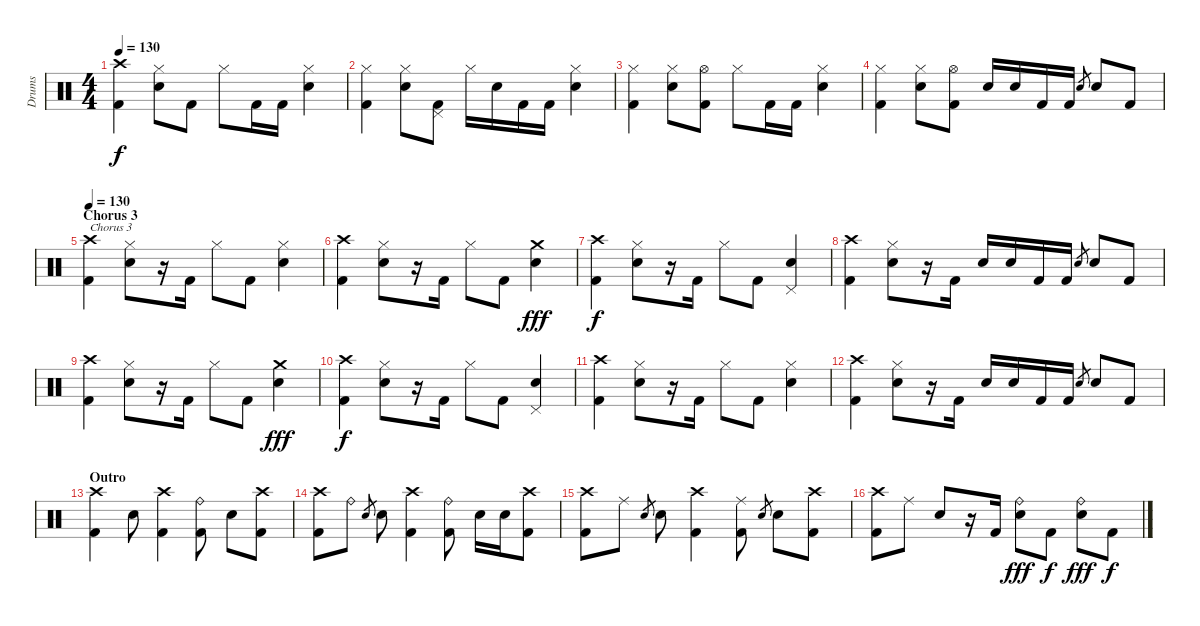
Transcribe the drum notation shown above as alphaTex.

\track ("Drums" "Drums") {instrument percussion}
\staff {score}
\articulation defaults
\ts (4 4)
\tempo 130
\clef neutral
\ks c
("Crash high (hit)" "Kick (hit) 2").4{dy f} ("Hi-Hat (closed)" "Electric Snare (hit)").8 "Kick (hit) 2".8 "Hi-Hat (closed)".8 "Kick (hit) 2".16 "Kick (hit) 2".16 ("Hi-Hat (closed)" "Electric Snare (hit)").4 |
("Hi-Hat (closed)" "Kick (hit) 2").4 ("Hi-Hat (closed)" "Electric Snare (hit)").8 ("Pedal Hi-Hat (hit)" "Kick (hit) 2").8 "Hi-Hat (closed)".16 "Electric Snare (hit)".16 "Kick (hit) 2".16 "Kick (hit) 2".16 ("Hi-Hat (closed)" "Electric Snare (hit)").4 |
("Hi-Hat (closed)" "Kick (hit) 2").4 ("Hi-Hat (closed)" "Electric Snare (hit)").8 ("Hi-Hat (open)" "Kick (hit) 2").8 "Hi-Hat (closed)".8 "Kick (hit) 2".16 "Kick (hit) 2".16 ("Hi-Hat (closed)" "Electric Snare (hit)").4 |
("Hi-Hat (closed)" "Kick (hit) 2").4 ("Hi-Hat (closed)" "Electric Snare (hit)").8 ("Hi-Hat (open)" "Kick (hit) 2").8 "Electric Snare (hit)".16 "Electric Snare (hit)".16 "Kick (hit) 2".16 "Kick (hit) 2".16 "Electric Snare (hit)".8{gr} "Electric Snare (hit)".8 "Kick (hit) 2".8 |
\section ("" "Chorus 3")
\tempo 130
("Crash high (hit)" "Kick (hit) 2").4{txt "Chorus 3"} ("Hi-Hat (closed)" "Electric Snare (hit)").8 r.16 "Kick (hit) 2".16 "Hi-Hat (closed)".8 "Kick (hit) 2".8 ("Hi-Hat (closed)" "Electric Snare (hit)").4 |
("Crash high (hit)" "Kick (hit) 2").4 ("Hi-Hat (closed)" "Electric Snare (hit)").8 r.16 "Kick (hit) 2".16 "Hi-Hat (closed)".8 "Kick (hit) 2".8 ("Crash medium (hit)" "Electric Snare (hit)").4{dy fff} |
("Crash high (hit)" "Kick (hit) 2").4{dy f} ("Hi-Hat (closed)" "Electric Snare (hit)").8 r.16 "Kick (hit) 2".16 "Hi-Hat (closed)".8 "Kick (hit) 2".8 ("Pedal Hi-Hat (hit)" "Electric Snare (hit)").4 |
("Crash high (hit)" "Kick (hit) 2").4 ("Hi-Hat (closed)" "Electric Snare (hit)").8 r.16 "Kick (hit) 2".16 "Electric Snare (hit)".16 "Electric Snare (hit)".16 "Kick (hit) 2".16 "Kick (hit) 2".16 "Electric Snare (hit)".8{gr} "Electric Snare (hit)".8 "Kick (hit) 2".8 |
("Crash high (hit)" "Kick (hit) 2").4 ("Hi-Hat (closed)" "Electric Snare (hit)").8 r.16 "Kick (hit) 2".16 "Hi-Hat (closed)".8 "Kick (hit) 2".8 ("Crash medium (hit)" "Electric Snare (hit)").4{dy fff} |
("Crash high (hit)" "Kick (hit) 2").4{dy f} ("Hi-Hat (closed)" "Electric Snare (hit)").8 r.16 "Kick (hit) 2".16 "Hi-Hat (closed)".8 "Kick (hit) 2".8 ("Pedal Hi-Hat (hit)" "Electric Snare (hit)").4 |
("Crash high (hit)" "Kick (hit) 2").4 ("Hi-Hat (closed)" "Electric Snare (hit)").8 r.16 "Kick (hit) 2".16 "Hi-Hat (closed)".8 "Kick (hit) 2".8 ("Hi-Hat (closed)" "Electric Snare (hit)").4 |
("Crash high (hit)" "Kick (hit) 2").4 ("Hi-Hat (closed)" "Electric Snare (hit)").8 r.16 "Kick (hit) 2".16 "Electric Snare (hit)".16 "Electric Snare (hit)".16 "Kick (hit) 2".16 "Kick (hit) 2".16 "Electric Snare (hit)".8{gr} "Electric Snare (hit)".8 "Kick (hit) 2".8 |
\section ("" "Outro")
("Crash high (hit)" "Kick (hit) 2").4 "Electric Snare (hit)".8 ("Crash high (hit)" "Kick (hit) 2").4 ("Ride (bell)" "Kick (hit) 2").8 "Electric Snare (hit)".8 ("Crash high (hit)" "Kick (hit) 2").8 |
("Crash high (hit)" "Kick (hit) 2").8 "Ride (bell)".8 "Electric Snare (hit)".8{gr} "Electric Snare (hit)".8 ("Crash high (hit)" "Kick (hit) 2").4 ("Ride (bell)" "Kick (hit) 2").8 "Electric Snare (hit)".16 "Electric Snare (hit)".16 ("Crash high (hit)" "Kick (hit) 2").8 |
("Crash high (hit)" "Kick (hit) 2").8 "Ride (middle)".8 "Electric Snare (hit)".8{gr} "Electric Snare (hit)".8 ("Crash high (hit)" "Kick (hit) 2").4 ("Ride (middle)" "Kick (hit) 2").8 "Electric Snare (hit)".8{gr} "Electric Snare (hit)".8 ("Crash high (hit)" "Kick (hit) 2").8 |
("Crash high (hit)" "Kick (hit) 2").8 "Ride (middle)".8 "Electric Snare (hit)".8 r.16 "Kick (hit) 2".16 ("Ride (bell)" "Electric Snare (hit)").8{dy fff} "Kick (hit) 2".8{dy f} ("Ride (bell)" "Electric Snare (hit)").8{dy fff} "Kick (hit) 2".8{dy f}
